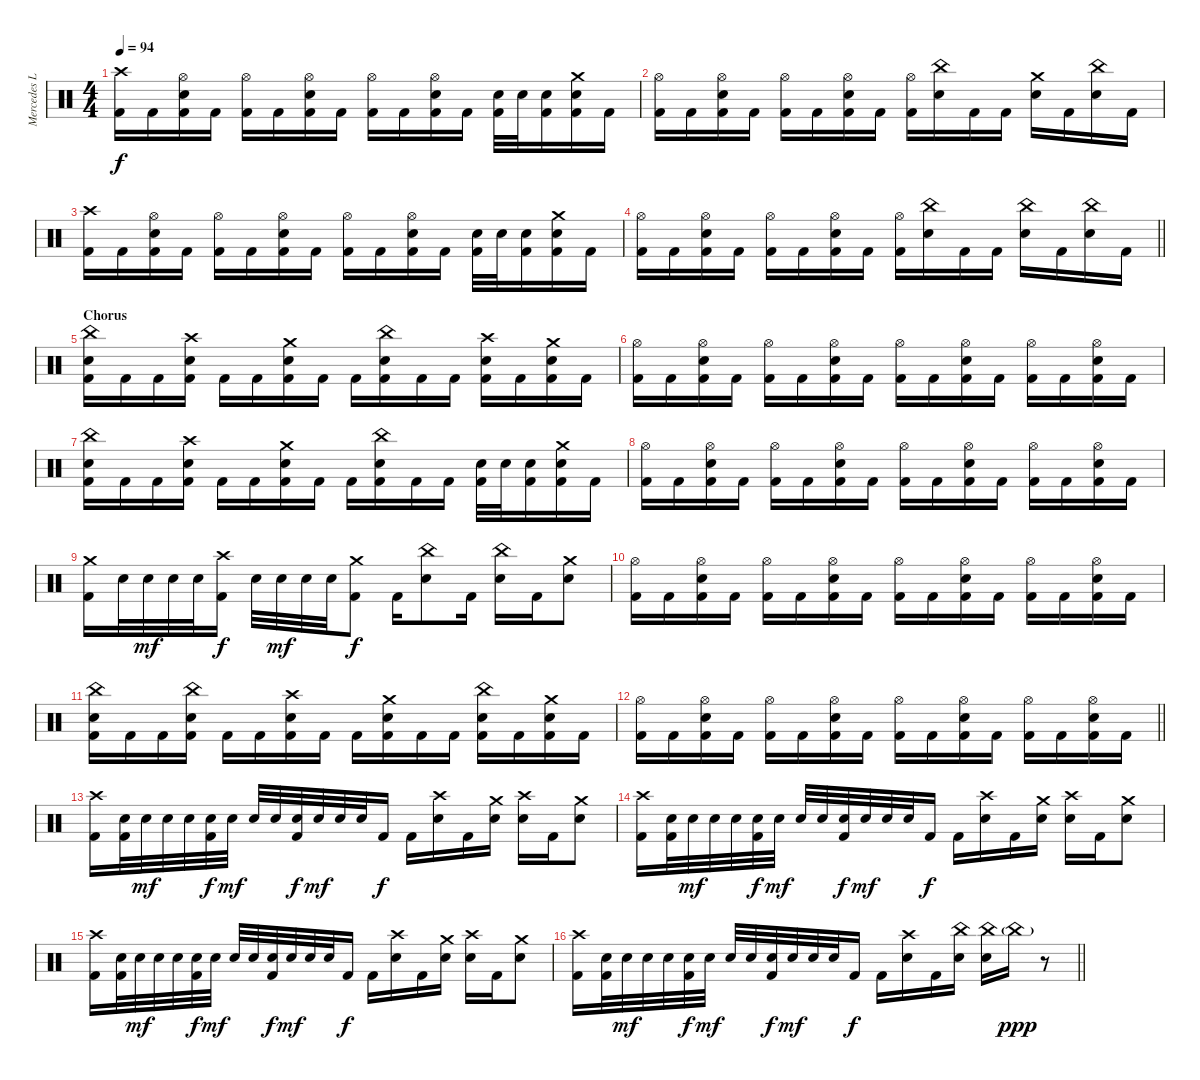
\track ("Mercedes Lander" "Mercedes L") {instrument percussion}
\staff {score}
\articulation defaults
\ts (4 4)
\tempo 94
\clef neutral
\ks c
("Crash high (hit)" "Kick (hit) 2").16{dy f} "Kick (hit) 2".16 ("Hi-Hat (open)" "Snare (hit) 2" "Kick (hit) 2").16 "Kick (hit) 2".16 ("Hi-Hat (open)" "Kick (hit) 2").16 "Kick (hit) 2".16 ("Hi-Hat (open)" "Snare (hit) 2" "Kick (hit) 2").16 "Kick (hit) 2".16 ("Hi-Hat (open)" "Kick (hit) 2").16 "Kick (hit) 2".16 ("Hi-Hat (open)" "Snare (hit) 2" "Kick (hit) 2").16 "Kick (hit) 2".16 ("Snare (hit) 2" "Kick (hit) 2").32 "Snare (hit) 2".32 ("Snare (hit) 2" "Kick (hit) 2").16 ("Crash medium (hit)" "Snare (hit) 2" "Kick (hit) 2").16 "Kick (hit) 2".16 |
("Hi-Hat (open)" "Kick (hit) 2").16 "Kick (hit) 2".16 ("Hi-Hat (open)" "Snare (hit) 2" "Kick (hit) 2").16 "Kick (hit) 2".16 ("Hi-Hat (open)" "Kick (hit) 2").16 "Kick (hit) 2".16 ("Hi-Hat (open)" "Snare (hit) 2" "Kick (hit) 2").16 "Kick (hit) 2".16 ("Hi-Hat (open)" "Kick (hit) 2").16 ("China (hit)" "Snare (hit) 2").16 "Kick (hit) 2".16 "Kick (hit) 2".16 ("Crash medium (hit)" "Snare (hit) 2").16 "Kick (hit) 2".16 ("China (hit)" "Snare (hit) 2").16 "Kick (hit) 2".16 |
("Crash high (hit)" "Kick (hit) 2").16 "Kick (hit) 2".16 ("Hi-Hat (open)" "Snare (hit) 2" "Kick (hit) 2").16 "Kick (hit) 2".16 ("Hi-Hat (open)" "Kick (hit) 2").16 "Kick (hit) 2".16 ("Hi-Hat (open)" "Snare (hit) 2" "Kick (hit) 2").16 "Kick (hit) 2".16 ("Hi-Hat (open)" "Kick (hit) 2").16 "Kick (hit) 2".16 ("Hi-Hat (open)" "Snare (hit) 2" "Kick (hit) 2").16 "Kick (hit) 2".16 ("Snare (hit) 2" "Kick (hit) 2").32 "Snare (hit) 2".32 ("Snare (hit) 2" "Kick (hit) 2").16 ("Crash medium (hit)" "Snare (hit) 2" "Kick (hit) 2").16 "Kick (hit) 2".16 |
\barLineRight lightlight
("Hi-Hat (open)" "Kick (hit) 2").16 "Kick (hit) 2".16 ("Hi-Hat (open)" "Snare (hit) 2" "Kick (hit) 2").16 "Kick (hit) 2".16 ("Hi-Hat (open)" "Kick (hit) 2").16 "Kick (hit) 2".16 ("Hi-Hat (open)" "Snare (hit) 2" "Kick (hit) 2").16 "Kick (hit) 2".16 ("Hi-Hat (open)" "Kick (hit) 2").16 ("China (hit)" "Snare (hit) 2").16 "Kick (hit) 2".16 "Kick (hit) 2".16 ("China (hit)" "Snare (hit) 2").16 "Kick (hit) 2".16 ("China (hit)" "Snare (hit) 2").16 "Kick (hit) 2".16 |
\section ("" "Chorus")
("China (hit)" "Snare (hit) 2" "Kick (hit) 2").16 "Kick (hit) 2".16 "Kick (hit) 2".16 ("Crash high (hit)" "Snare (hit) 2" "Kick (hit) 2").16 "Kick (hit) 2".16 "Kick (hit) 2".16 ("Crash medium (hit)" "Snare (hit) 2" "Kick (hit) 2").16 "Kick (hit) 2".16 "Kick (hit) 2".16 ("China (hit)" "Snare (hit) 2" "Kick (hit) 2").16 "Kick (hit) 2".16 "Kick (hit) 2".16 ("Crash high (hit)" "Snare (hit) 2" "Kick (hit) 2").16 "Kick (hit) 2".16 ("Crash medium (hit)" "Snare (hit) 2" "Kick (hit) 2").16 "Kick (hit) 2".16 |
("Hi-Hat (open)" "Kick (hit) 2").16 "Kick (hit) 2".16 ("Hi-Hat (open)" "Snare (hit) 2" "Kick (hit) 2").16 "Kick (hit) 2".16 ("Hi-Hat (open)" "Kick (hit) 2").16 "Kick (hit) 2".16 ("Hi-Hat (open)" "Snare (hit) 2" "Kick (hit) 2").16 "Kick (hit) 2".16 ("Hi-Hat (open)" "Kick (hit) 2").16 "Kick (hit) 2".16 ("Hi-Hat (open)" "Snare (hit) 2" "Kick (hit) 2").16 "Kick (hit) 2".16 ("Hi-Hat (open)" "Kick (hit) 2").16 "Kick (hit) 2".16 ("Hi-Hat (open)" "Snare (hit) 2" "Kick (hit) 2").16 "Kick (hit) 2".16 |
("China (hit)" "Snare (hit) 2" "Kick (hit) 2").16 "Kick (hit) 2".16 "Kick (hit) 2".16 ("Crash high (hit)" "Snare (hit) 2" "Kick (hit) 2").16 "Kick (hit) 2".16 "Kick (hit) 2".16 ("Crash medium (hit)" "Snare (hit) 2" "Kick (hit) 2").16 "Kick (hit) 2".16 "Kick (hit) 2".16 ("China (hit)" "Snare (hit) 2" "Kick (hit) 2").16 "Kick (hit) 2".16 "Kick (hit) 2".16 ("Snare (hit) 2" "Kick (hit) 2").32 "Snare (hit) 2".32 ("Snare (hit) 2" "Kick (hit) 2").16 ("Crash medium (hit)" "Snare (hit) 2" "Kick (hit) 2").16 "Kick (hit) 2".16 |
("Hi-Hat (open)" "Kick (hit) 2").16 "Kick (hit) 2".16 ("Hi-Hat (open)" "Snare (hit) 2" "Kick (hit) 2").16 "Kick (hit) 2".16 ("Hi-Hat (open)" "Kick (hit) 2").16 "Kick (hit) 2".16 ("Hi-Hat (open)" "Snare (hit) 2" "Kick (hit) 2").16 "Kick (hit) 2".16 ("Hi-Hat (open)" "Kick (hit) 2").16 "Kick (hit) 2".16 ("Hi-Hat (open)" "Snare (hit) 2" "Kick (hit) 2").16 "Kick (hit) 2".16 ("Hi-Hat (open)" "Kick (hit) 2").16 "Kick (hit) 2".16 ("Hi-Hat (open)" "Snare (hit) 2" "Kick (hit) 2").16 "Kick (hit) 2".16 |
("Crash medium (hit)" "Kick (hit) 2").16 "Snare (hit) 2".32 "Snare (hit) 2".32{dy mf} "Snare (hit) 2".32 "Snare (hit) 2".32 ("Crash high (hit)" "Kick (hit) 2").16{dy f} "Snare (hit) 2".32 "Snare (hit) 2".32{dy mf} "Snare (hit) 2".32 "Snare (hit) 2".32 ("Crash medium (hit)" "Kick (hit) 2").8{dy f} "Kick (hit) 2".16 ("China (hit)" "Snare (hit) 2").8 "Kick (hit) 2".16 ("China (hit)" "Snare (hit) 2").16 "Kick (hit) 2".16 ("Crash medium (hit)" "Snare (hit) 2").8 |
("Hi-Hat (open)" "Kick (hit) 2").16 "Kick (hit) 2".16 ("Hi-Hat (open)" "Snare (hit) 2" "Kick (hit) 2").16 "Kick (hit) 2".16 ("Hi-Hat (open)" "Kick (hit) 2").16 "Kick (hit) 2".16 ("Hi-Hat (open)" "Snare (hit) 2" "Kick (hit) 2").16 "Kick (hit) 2".16 ("Hi-Hat (open)" "Kick (hit) 2").16 "Kick (hit) 2".16 ("Hi-Hat (open)" "Snare (hit) 2" "Kick (hit) 2").16 "Kick (hit) 2".16 ("Hi-Hat (open)" "Kick (hit) 2").16 "Kick (hit) 2".16 ("Hi-Hat (open)" "Snare (hit) 2" "Kick (hit) 2").16 "Kick (hit) 2".16 |
("China (hit)" "Snare (hit) 2" "Kick (hit) 2").16 "Kick (hit) 2".16 "Kick (hit) 2".16 ("China (hit)" "Snare (hit) 2" "Kick (hit) 2").16 "Kick (hit) 2".16 "Kick (hit) 2".16 ("Crash high (hit)" "Snare (hit) 2" "Kick (hit) 2").16 "Kick (hit) 2".16 "Kick (hit) 2".16 ("Crash medium (hit)" "Snare (hit) 2" "Kick (hit) 2").16 "Kick (hit) 2".16 "Kick (hit) 2".16 ("China (hit)" "Snare (hit) 2" "Kick (hit) 2").16 "Kick (hit) 2".16 ("Crash medium (hit)" "Snare (hit) 2" "Kick (hit) 2").16 "Kick (hit) 2".16 |
\barLineRight lightlight
("Hi-Hat (open)" "Kick (hit) 2").16 "Kick (hit) 2".16 ("Hi-Hat (open)" "Snare (hit) 2" "Kick (hit) 2").16 "Kick (hit) 2".16 ("Hi-Hat (open)" "Kick (hit) 2").16 "Kick (hit) 2".16 ("Hi-Hat (open)" "Snare (hit) 2" "Kick (hit) 2").16 "Kick (hit) 2".16 ("Hi-Hat (open)" "Kick (hit) 2").16 "Kick (hit) 2".16 ("Hi-Hat (open)" "Snare (hit) 2" "Kick (hit) 2").16 "Kick (hit) 2".16 ("Hi-Hat (open)" "Kick (hit) 2").16 "Kick (hit) 2".16 ("Hi-Hat (open)" "Snare (hit) 2" "Kick (hit) 2").16 "Kick (hit) 2".16 |
("Crash high (hit)" "Kick (hit) 2").16 ("Snare (hit) 2" "Kick (hit) 2").32 "Snare (hit) 2".32{dy mf} "Snare (hit) 2".32 "Snare (hit) 2".32 ("Snare (hit) 2" "Kick (hit) 2").32{dy f} "Snare (hit) 2".32{dy mf} "Snare (hit) 2".32 "Snare (hit) 2".32 ("Snare (hit) 2" "Kick (hit) 2").32{dy f} "Snare (hit) 2".32{dy mf} "Snare (hit) 2".32 "Snare (hit) 2".32 "Kick (hit) 2".16{dy f} "Kick (hit) 2".16 ("Crash high (hit)" "Snare (hit) 2").16 "Kick (hit) 2".16 ("Crash medium (hit)" "Snare (hit) 2").16 ("Crash high (hit)" "Snare (hit) 2").16 "Kick (hit) 2".16 ("Crash medium (hit)" "Snare (hit) 2").8 |
("Crash high (hit)" "Kick (hit) 2").16 ("Snare (hit) 2" "Kick (hit) 2").32 "Snare (hit) 2".32{dy mf} "Snare (hit) 2".32 "Snare (hit) 2".32 ("Snare (hit) 2" "Kick (hit) 2").32{dy f} "Snare (hit) 2".32{dy mf} "Snare (hit) 2".32 "Snare (hit) 2".32 ("Snare (hit) 2" "Kick (hit) 2").32{dy f} "Snare (hit) 2".32{dy mf} "Snare (hit) 2".32 "Snare (hit) 2".32 "Kick (hit) 2".16{dy f} "Kick (hit) 2".16 ("Crash high (hit)" "Snare (hit) 2").16 "Kick (hit) 2".16 ("Crash medium (hit)" "Snare (hit) 2").16 ("Crash high (hit)" "Snare (hit) 2").16 "Kick (hit) 2".16 ("Crash medium (hit)" "Snare (hit) 2").8 |
("Crash high (hit)" "Kick (hit) 2").16 ("Snare (hit) 2" "Kick (hit) 2").32 "Snare (hit) 2".32{dy mf} "Snare (hit) 2".32 "Snare (hit) 2".32 ("Snare (hit) 2" "Kick (hit) 2").32{dy f} "Snare (hit) 2".32{dy mf} "Snare (hit) 2".32 "Snare (hit) 2".32 ("Snare (hit) 2" "Kick (hit) 2").32{dy f} "Snare (hit) 2".32{dy mf} "Snare (hit) 2".32 "Snare (hit) 2".32 "Kick (hit) 2".16{dy f} "Kick (hit) 2".16 ("Crash high (hit)" "Snare (hit) 2").16 "Kick (hit) 2".16 ("Crash medium (hit)" "Snare (hit) 2").16 ("Crash high (hit)" "Snare (hit) 2").16 "Kick (hit) 2".16 ("Crash medium (hit)" "Snare (hit) 2").8 |
\barLineRight lightlight
("Crash high (hit)" "Kick (hit) 2").16 ("Snare (hit) 2" "Kick (hit) 2").32 "Snare (hit) 2".32{dy mf} "Snare (hit) 2".32 "Snare (hit) 2".32 ("Snare (hit) 2" "Kick (hit) 2").32{dy f} "Snare (hit) 2".32{dy mf} "Snare (hit) 2".32 "Snare (hit) 2".32 ("Snare (hit) 2" "Kick (hit) 2").32{dy f} "Snare (hit) 2".32{dy mf} "Snare (hit) 2".32 "Snare (hit) 2".32 "Kick (hit) 2".16{dy f} "Kick (hit) 2".16 ("Crash high (hit)" "Snare (hit) 2").16 "Kick (hit) 2".16 ("China (hit)" "Snare (hit) 2").16 ("China (hit)" "Snare (hit) 2").16 "China (hit)"{g}.16{dy ppp} r.8
